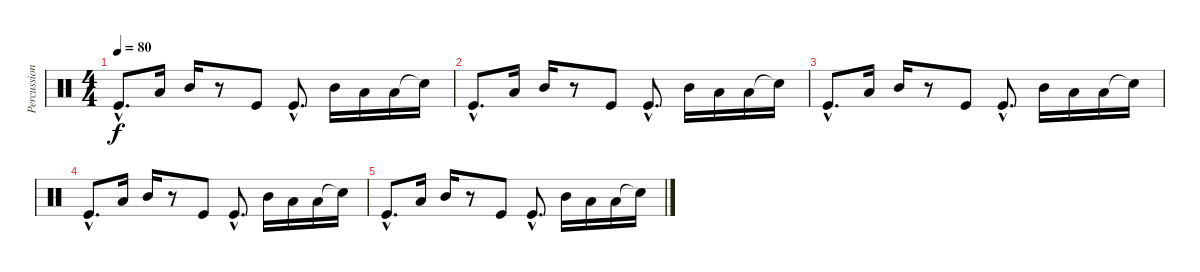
\track ("Percussions" "Percussion") {instrument percussion}
\staff {score}
\articulation defaults
\ts (4 4)
\tempo 80
\clef neutral
\ks c "Kick (hit)"{hac}.8{d dy f} "Low Floor Tom (hit)".16 "Mid Tom (hit)".16
r.8 "Kick (hit)".8 "Kick (hit)"{hac}.8{d} "Mid Tom (hit)".16 "Low Tom (hit)".16 "Low Floor Tom (hit)".16 "Snare (hit)"{t}.16 |
"Kick (hit)"{hac}.8{d} "Low Floor Tom (hit)".16 "Mid Tom (hit)".16 r.8 "Kick (hit)".8 "Kick (hit)"{hac}.8{d} "Mid Tom (hit)".16 "Low Tom (hit)".16 "Low Floor Tom (hit)".16 "Snare (hit)"{t}.16 |
"Kick (hit)"{hac}.8{d} "Low Floor Tom (hit)".16 "Mid Tom (hit)".16 r.8 "Kick (hit)".8 "Kick (hit)"{hac}.8{d} "Mid Tom (hit)".16 "Low Tom (hit)".16 "Low Floor Tom (hit)".16 "Snare (hit)"{t}.16 |
"Kick (hit)"{hac}.8{d} "Low Floor Tom (hit)".16 "Mid Tom (hit)".16 r.8 "Kick (hit)".8 "Kick (hit)"{hac}.8{d} "Mid Tom (hit)".16 "Low Tom (hit)".16 "Low Floor Tom (hit)".16 "Snare (hit)"{t}.16 |
"Kick (hit)"{hac}.8{d} "Low Floor Tom (hit)".16 "Mid Tom (hit)".16 r.8 "Kick (hit)".8 "Kick (hit)"{hac}.8{d} "Mid Tom (hit)".16 "Low Tom (hit)".16 "Low Floor Tom (hit)".16 "Snare (hit)"{t}.16
